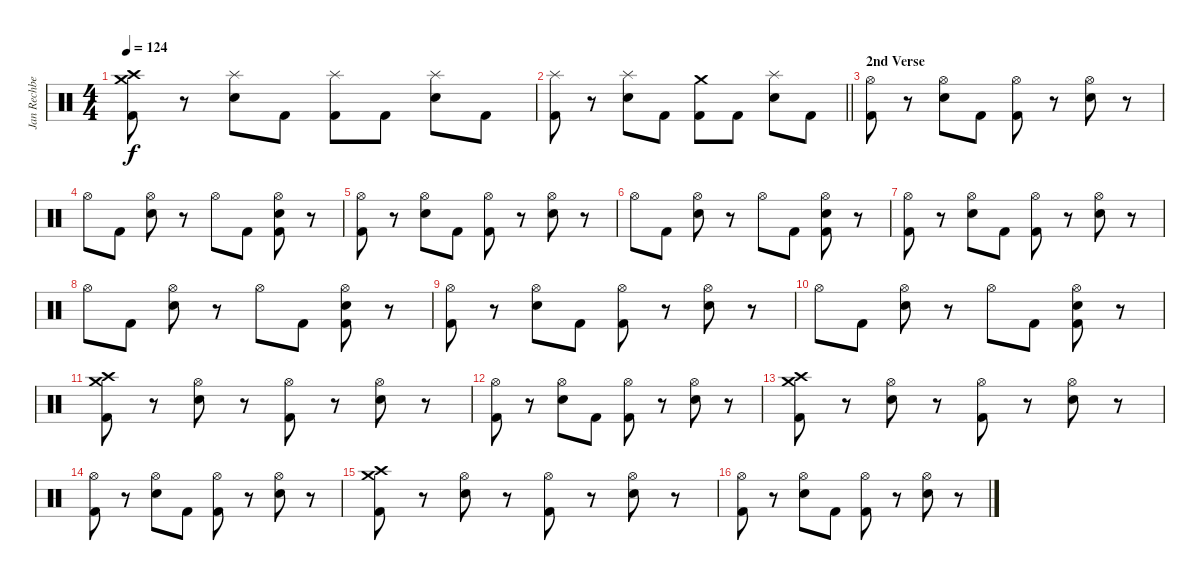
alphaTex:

\track ("Jan Rechberger" "Jan Rechbe") {instrument percussion}
\staff {score}
\articulation defaults
\ts (4 4)
\tempo 124
\clef neutral
\ks c
("Crash medium (hit)" "Crash high (hit)" "Kick (hit) 2").8{dy f} r.8 ("Splash (hit)" "Snare (hit) 2").8 "Kick (hit) 2".8 ("Splash (hit)" "Kick (hit) 2").8 "Kick (hit) 2".8 ("Splash (hit)" "Snare (hit) 2").8 "Kick (hit) 2".8 |
\barLineRight lightlight
("Splash (hit)" "Kick (hit) 2").8 r.8 ("Splash (hit)" "Snare (hit) 2").8 "Kick (hit) 2".8 ("Crash medium (hit)" "Kick (hit) 2").8 "Kick (hit) 2".8 ("Splash (hit)" "Snare (hit) 2").8 "Kick (hit) 2".8 |
\section ("" "2nd Verse")
("Hi-Hat (open)" "Kick (hit) 2").8 r.8 ("Hi-Hat (open)" "Snare (hit) 2").8 "Kick (hit) 2".8 ("Hi-Hat (open)" "Kick (hit) 2").8 r.8 ("Hi-Hat (open)" "Snare (hit) 2").8 r.8 |
"Hi-Hat (open)".8 "Kick (hit) 2".8 ("Hi-Hat (open)" "Snare (hit) 2").8 r.8 "Hi-Hat (open)".8 "Kick (hit) 2".8 ("Hi-Hat (open)" "Snare (hit) 2" "Kick (hit) 2").8 r.8 |
("Hi-Hat (open)" "Kick (hit) 2").8 r.8 ("Hi-Hat (open)" "Snare (hit) 2").8 "Kick (hit) 2".8 ("Hi-Hat (open)" "Kick (hit) 2").8 r.8 ("Hi-Hat (open)" "Snare (hit) 2").8 r.8 |
"Hi-Hat (open)".8 "Kick (hit) 2".8 ("Hi-Hat (open)" "Snare (hit) 2").8 r.8 "Hi-Hat (open)".8 "Kick (hit) 2".8 ("Hi-Hat (open)" "Snare (hit) 2" "Kick (hit) 2").8 r.8 |
("Hi-Hat (open)" "Kick (hit) 2").8 r.8 ("Hi-Hat (open)" "Snare (hit) 2").8 "Kick (hit) 2".8 ("Hi-Hat (open)" "Kick (hit) 2").8 r.8 ("Hi-Hat (open)" "Snare (hit) 2").8 r.8 |
"Hi-Hat (open)".8 "Kick (hit) 2".8 ("Hi-Hat (open)" "Snare (hit) 2").8 r.8 "Hi-Hat (open)".8 "Kick (hit) 2".8 ("Hi-Hat (open)" "Snare (hit) 2" "Kick (hit) 2").8 r.8 |
("Hi-Hat (open)" "Kick (hit) 2").8 r.8 ("Hi-Hat (open)" "Snare (hit) 2").8 "Kick (hit) 2".8 ("Hi-Hat (open)" "Kick (hit) 2").8 r.8 ("Hi-Hat (open)" "Snare (hit) 2").8 r.8 |
"Hi-Hat (open)".8 "Kick (hit) 2".8 ("Hi-Hat (open)" "Snare (hit) 2").8 r.8 "Hi-Hat (open)".8 "Kick (hit) 2".8 ("Hi-Hat (open)" "Snare (hit) 2" "Kick (hit) 2").8 r.8 |
("Crash medium (hit)" "Crash high (hit)" "Kick (hit) 2").8 r.8 ("Hi-Hat (open)" "Snare (hit) 2").8 r.8 ("Hi-Hat (open)" "Kick (hit) 2").8 r.8 ("Hi-Hat (open)" "Snare (hit) 2").8 r.8 |
("Hi-Hat (open)" "Kick (hit) 2").8 r.8 ("Hi-Hat (open)" "Snare (hit) 2").8 "Kick (hit) 2".8 ("Hi-Hat (open)" "Kick (hit) 2").8 r.8 ("Hi-Hat (open)" "Snare (hit) 2").8 r.8 |
("Crash medium (hit)" "Crash high (hit)" "Kick (hit) 2").8 r.8 ("Hi-Hat (open)" "Snare (hit) 2").8 r.8 ("Hi-Hat (open)" "Kick (hit) 2").8 r.8 ("Hi-Hat (open)" "Snare (hit) 2").8 r.8 |
("Hi-Hat (open)" "Kick (hit) 2").8 r.8 ("Hi-Hat (open)" "Snare (hit) 2").8 "Kick (hit) 2".8 ("Hi-Hat (open)" "Kick (hit) 2").8 r.8 ("Hi-Hat (open)" "Snare (hit) 2").8 r.8 |
("Crash medium (hit)" "Crash high (hit)" "Kick (hit) 2").8 r.8 ("Hi-Hat (open)" "Snare (hit) 2").8 r.8 ("Hi-Hat (open)" "Kick (hit) 2").8 r.8 ("Hi-Hat (open)" "Snare (hit) 2").8 r.8 |
("Hi-Hat (open)" "Kick (hit) 2").8 r.8 ("Hi-Hat (open)" "Snare (hit) 2").8 "Kick (hit) 2".8 ("Hi-Hat (open)" "Kick (hit) 2").8 r.8 ("Hi-Hat (open)" "Snare (hit) 2").8 r.8
